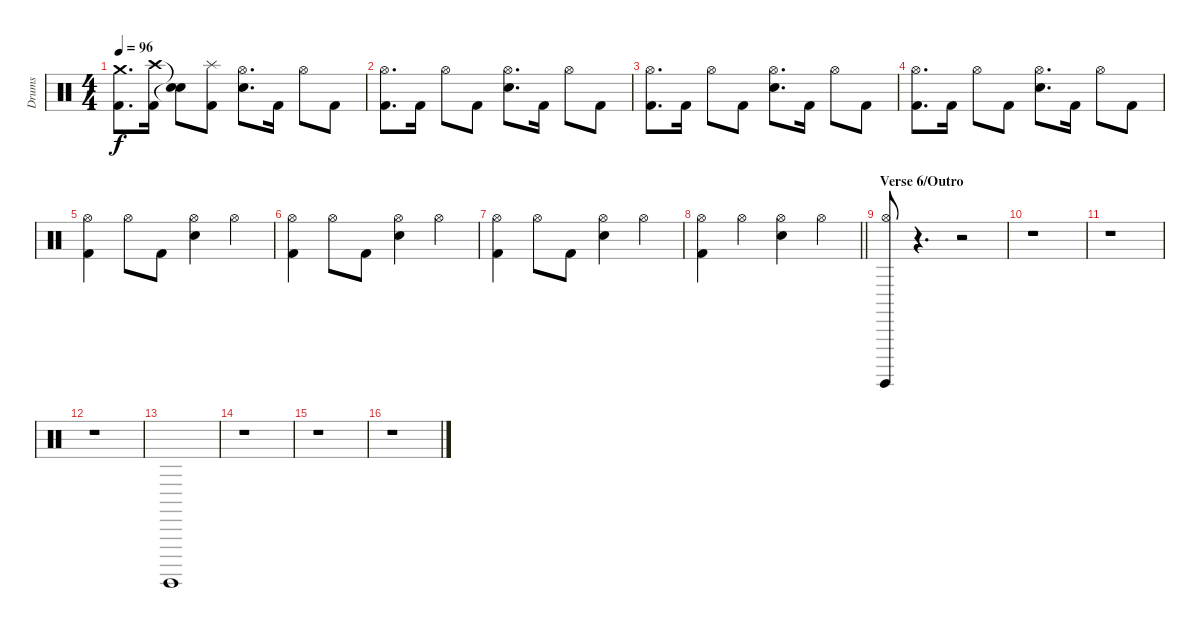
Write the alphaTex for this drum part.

\track ("Drums" "Drums") {instrument percussion}
\staff {score}
\articulation defaults
\ts (4 4)
\tempo 96
\clef neutral
\ks c
("Crash medium (hit)" "Kick (hit) 2").8{d dy f} ("Crash high (hit)" "Kick (hit) 2").16 ("Snare (hit)"{t} "Snare (hit)"{t}).8 ("Splash (hit)" "Kick (hit) 2").8 ("Hi-Hat (open)" "Electric Snare (hit)").8{d} "Kick (hit) 2".16 "Hi-Hat (open)".8 "Kick (hit) 2".8 |
("Hi-Hat (open)" "Kick (hit) 2").8{d} "Kick (hit) 2".16 "Hi-Hat (open)".8 "Kick (hit) 2".8 ("Hi-Hat (open)" "Electric Snare (hit)").8{d} "Kick (hit) 2".16 "Hi-Hat (open)".8 "Kick (hit) 2".8 |
("Hi-Hat (open)" "Kick (hit) 2").8{d} "Kick (hit) 2".16 "Hi-Hat (open)".8 "Kick (hit) 2".8 ("Hi-Hat (open)" "Electric Snare (hit)").8{d} "Kick (hit) 2".16 "Hi-Hat (open)".8 "Kick (hit) 2".8 |
("Hi-Hat (open)" "Kick (hit) 2").8{d} "Kick (hit) 2".16 "Hi-Hat (open)".8 "Kick (hit) 2".8 ("Hi-Hat (open)" "Electric Snare (hit)").8{d} "Kick (hit) 2".16 "Hi-Hat (open)".8 "Kick (hit) 2".8 |
("Hi-Hat (open)" "Kick (hit) 2").4 "Hi-Hat (open)".8 "Kick (hit) 2".8 ("Hi-Hat (open)" "Electric Snare (hit)").4 "Hi-Hat (open)".4 |
("Hi-Hat (open)" "Kick (hit) 2").4 "Hi-Hat (open)".8 "Kick (hit) 2".8 ("Hi-Hat (open)" "Electric Snare (hit)").4 "Hi-Hat (open)".4 |
("Hi-Hat (open)" "Kick (hit) 2").4 "Hi-Hat (open)".8 "Kick (hit) 2".8 ("Hi-Hat (open)" "Electric Snare (hit)").4 "Hi-Hat (open)".4 |
\barLineRight lightlight
("Hi-Hat (open)" "Kick (hit) 2").4 "Hi-Hat (open)".4 ("Hi-Hat (open)" "Electric Snare (hit)").4 "Hi-Hat (open)".4 |
\section ("" "Verse 6/Outro")
("Hi-Hat (open)" "Surdo (hit)").8 r.4{d volume 1} r.2{volume 13} |
r.1 |
r.1 |
r.1 |
"Surdo (hit)".1 |
r.1 |
r.1 |
r.1
